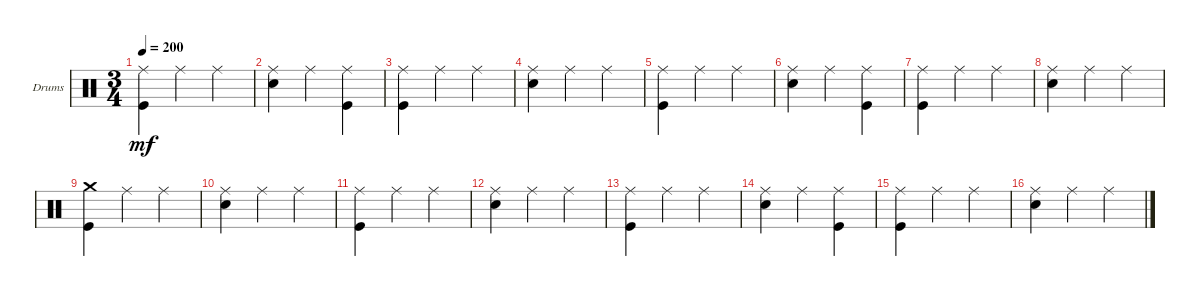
\bracketExtendMode groupsimilarinstruments
\firstSystemTrackNameOrientation horizontal
\otherSystemsTrackNameOrientation horizontal
\track ("Drumkit" "Drums") {instrument percussion}
\staff {score}
\articulation defaults
\ts (3 4)
\tempo 200
\clef neutral
\scale
0.333333
\ks c
("Kick (hit)" "Ride (middle)").4{dy mf} "Ride (middle)".4 "Ride (middle)".4 |
\scale
0.333333 ("Snare (hit) 2" "Ride (middle)").4 "Ride (middle)".4 ("Ride (middle)" "Kick (hit)").4 |
\scale
0.333333 ("Kick (hit)" "Ride (middle)").4 "Ride (middle)".4 "Ride (middle)".4 |
\scale
0.333333 ("Snare (hit) 2" "Ride (middle)").4 "Ride (middle)".4 "Ride (middle)".4 |
\scale
0.333333 ("Kick (hit)" "Ride (middle)").4 "Ride (middle)".4 "Ride (middle)".4 |
\scale
0.333333 ("Snare (hit) 2" "Ride (middle)").4 "Ride (middle)".4 ("Ride (middle)" "Kick (hit)").4 |
\scale
0.333333 ("Kick (hit)" "Ride (middle)").4 "Ride (middle)".4 "Ride (middle)".4 |
\scale
0.333333 ("Snare (hit) 2" "Ride (middle)").4 "Ride (middle)".4 "Ride (middle)".4 |
\scale
0.333333 ("Kick (hit)" "Crash medium (hit)").4 "Ride (middle)".4 "Ride (middle)".4 |
\scale
0.333333 ("Snare (hit) 2" "Ride (middle)").4 "Ride (middle)".4 "Ride (middle)".4 |
\scale
0.333333 ("Kick (hit)" "Ride (middle)").4 "Ride (middle)".4 "Ride (middle)".4 |
\scale
0.333333 ("Snare (hit) 2" "Ride (middle)").4 "Ride (middle)".4 "Ride (middle)".4 |
\scale
0.333333 ("Kick (hit)" "Ride (middle)").4 "Ride (middle)".4 "Ride (middle)".4 |
\scale
0.333333 ("Snare (hit) 2" "Ride (middle)").4 "Ride (middle)".4 ("Ride (middle)" "Kick (hit)").4 |
\scale
0.333333 ("Kick (hit)" "Ride (middle)").4 "Ride (middle)".4 "Ride (middle)".4 |
\scale
0.333333 ("Snare (hit) 2" "Ride (middle)").4 "Ride (middle)".4 "Ride (middle)".4
